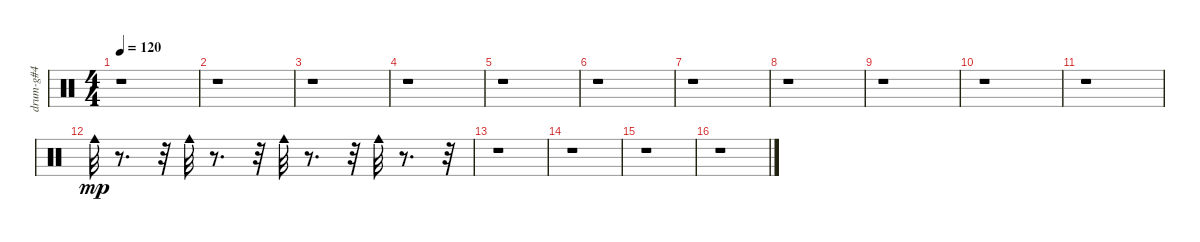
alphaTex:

\track ("drum-g#4" "drum-g#4") {instrument percussion}
\staff {score}
\articulation defaults
\ts (4 4)
\tempo 120
\clef neutral
\ks c
r.1{dy mp} |
r.1 |
r.1 |
r.1 |
r.1 |
r.1 |
r.1 |
r.1 |
r.1 |
r.1 |
r.1 |
"Cowbell medium (hit)".32 r.8{d} r.32 "Cowbell medium (hit)".32 r.8{d} r.32 "Cowbell medium (hit)".32 r.8{d} r.32 "Cowbell medium (hit)".32 r.8{d} r.32 |
r.1 |
r.1 |
r.1 |
r.1
